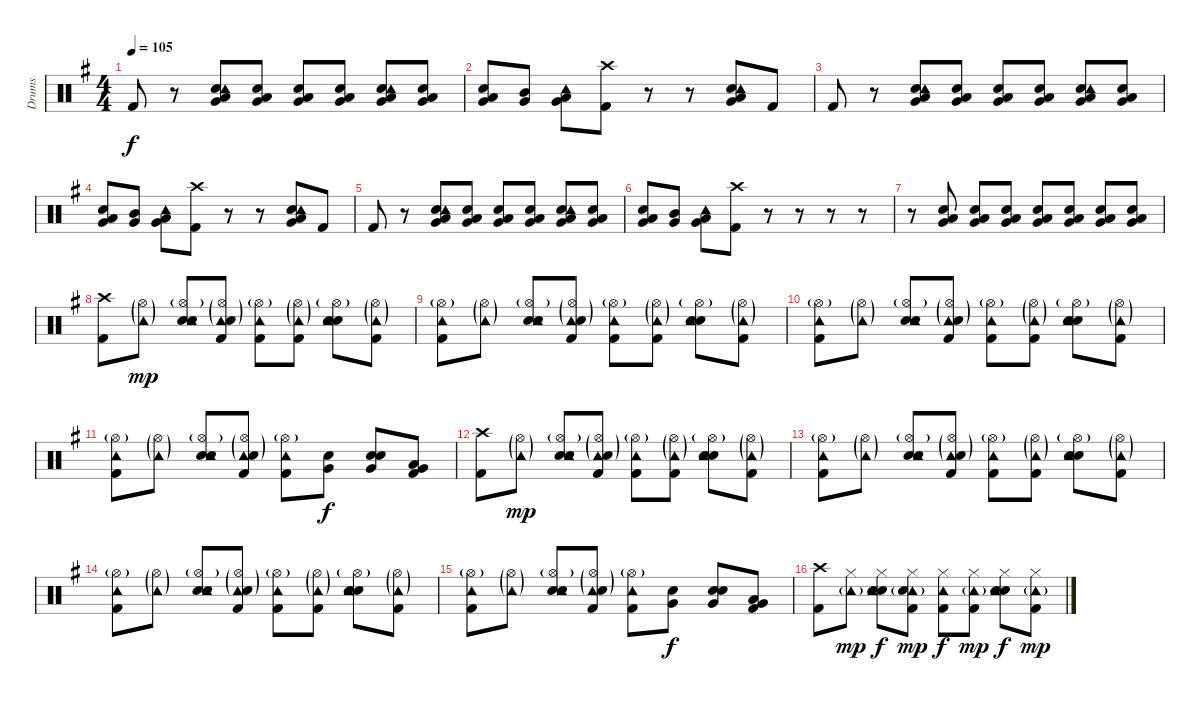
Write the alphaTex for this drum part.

\track ("Drums" "Drums") {instrument percussion}
\staff {score}
\articulation defaults
\ts (4 4)
\tempo 105
\clef neutral
\ks g "Kick (hit) 2".8{dy f}
r.8 ("Snare (hit) 2" "Low Tom (hit)" "Very Low Tom (hit)" "Tambourine (hit)").8 ("Snare (hit) 2" "Low Tom (hit)" "Very Low Tom (hit)").8 ("Snare (hit) 2" "Low Tom (hit)" "Very Low Tom (hit)").8 ("Snare (hit) 2" "Low Tom (hit)" "Very Low Tom (hit)").8 ("Snare (hit) 2" "Low Tom (hit)" "Very Low Tom (hit)" "Tambourine (hit)").8 ("Snare (hit) 2" "Low Tom (hit)" "Very Low Tom (hit)").8 |
("Snare (hit) 2" "Low Tom (hit)" "Very Low Tom (hit)").8 ("Mid Tom (hit)" "Very Low Tom (hit)").8 ("Low Tom (hit)" "Very Low Tom (hit)" "Tambourine (hit)").8 ("Kick (hit) 2" "Crash high (hit)").8 r.8 r.8 ("Snare (hit) 2" "Low Tom (hit)" "Very Low Tom (hit)" "Tambourine (hit)").8 "Kick (hit) 2".8 |
"Kick (hit) 2".8 r.8 ("Snare (hit) 2" "Low Tom (hit)" "Very Low Tom (hit)" "Tambourine (hit)").8 ("Snare (hit) 2" "Low Tom (hit)" "Very Low Tom (hit)").8 ("Snare (hit) 2" "Low Tom (hit)" "Very Low Tom (hit)").8 ("Snare (hit) 2" "Low Tom (hit)" "Very Low Tom (hit)").8 ("Snare (hit) 2" "Low Tom (hit)" "Very Low Tom (hit)" "Tambourine (hit)").8 ("Snare (hit) 2" "Low Tom (hit)" "Very Low Tom (hit)").8 |
("Snare (hit) 2" "Low Tom (hit)" "Very Low Tom (hit)").8 ("Mid Tom (hit)" "Very Low Tom (hit)").8 ("Low Tom (hit)" "Very Low Tom (hit)" "Tambourine (hit)").8 ("Kick (hit) 2" "Crash high (hit)").8 r.8 r.8 ("Snare (hit) 2" "Low Tom (hit)" "Very Low Tom (hit)" "Tambourine (hit)").8 "Kick (hit) 2".8 |
"Kick (hit) 2".8 r.8 ("Snare (hit) 2" "Low Tom (hit)" "Very Low Tom (hit)" "Tambourine (hit)").8 ("Snare (hit) 2" "Low Tom (hit)" "Very Low Tom (hit)").8 ("Snare (hit) 2" "Low Tom (hit)" "Very Low Tom (hit)").8 ("Snare (hit) 2" "Low Tom (hit)" "Very Low Tom (hit)").8 ("Snare (hit) 2" "Low Tom (hit)" "Very Low Tom (hit)" "Tambourine (hit)").8 ("Snare (hit) 2" "Low Tom (hit)" "Very Low Tom (hit)").8 |
("Snare (hit) 2" "Low Tom (hit)" "Very Low Tom (hit)").8 ("Mid Tom (hit)" "Very Low Tom (hit)").8 ("Low Tom (hit)" "Very Low Tom (hit)" "Tambourine (hit)").8 ("Kick (hit) 2" "Crash high (hit)").8 r.8 r.8 r.8 r.8 |
r.8 ("Snare (hit) 2" "Low Tom (hit)" "Very Low Tom (hit)").8 ("Snare (hit) 2" "Low Tom (hit)" "Very Low Tom (hit)").8 ("Snare (hit) 2" "Low Tom (hit)" "Very Low Tom (hit)").8 ("Snare (hit) 2" "Low Tom (hit)" "Very Low Tom (hit)").8 ("Snare (hit) 2" "Low Tom (hit)" "Very Low Tom (hit)").8 ("Snare (hit) 2" "Low Tom (hit)" "Very Low Tom (hit)").8 ("Snare (hit) 2" "Low Tom (hit)" "Very Low Tom (hit)").8 |
("Kick (hit) 2" "Crash high (hit)").8 ("Hi-Hat (open)"{g} "Tambourine (hit)"{g}).8{dy mp} ("Hi-Hat (open)"{g} "Snare (hit) 2" "Tambourine (hit)" "Hand Clap (hit)").8 ("Hi-Hat (open)"{g} "Kick (hit) 2" "Tambourine (hit)"{g} "Hand Clap (hit)").8 ("Hi-Hat (open)"{g} "Kick (hit) 2" "Tambourine (hit)").8 ("Hi-Hat (open)"{g} "Kick (hit) 2" "Tambourine (hit)"{g}).8 ("Hi-Hat (open)"{g} "Snare (hit) 2" "Tambourine (hit)" "Hand Clap (hit)").8 ("Hi-Hat (open)"{g} "Kick (hit) 2" "Tambourine (hit)"{g}).8 |
("Hi-Hat (open)"{g} "Kick (hit) 2" "Tambourine (hit)").8 ("Hi-Hat (open)"{g} "Tambourine (hit)"{g}).8 ("Hi-Hat (open)"{g} "Snare (hit) 2" "Tambourine (hit)" "Hand Clap (hit)").8 ("Hi-Hat (open)"{g} "Kick (hit) 2" "Tambourine (hit)"{g} "Hand Clap (hit)").8 ("Hi-Hat (open)"{g} "Kick (hit) 2" "Tambourine (hit)").8 ("Hi-Hat (open)"{g} "Kick (hit) 2" "Tambourine (hit)"{g}).8 ("Hi-Hat (open)"{g} "Snare (hit) 2" "Tambourine (hit)" "Hand Clap (hit)").8 ("Hi-Hat (open)"{g} "Kick (hit) 2" "Tambourine (hit)"{g}).8 |
("Hi-Hat (open)"{g} "Kick (hit) 2" "Tambourine (hit)").8 ("Hi-Hat (open)"{g} "Tambourine (hit)"{g}).8 ("Hi-Hat (open)"{g} "Snare (hit) 2" "Tambourine (hit)" "Hand Clap (hit)").8 ("Hi-Hat (open)"{g} "Kick (hit) 2" "Tambourine (hit)"{g} "Hand Clap (hit)").8 ("Hi-Hat (open)"{g} "Kick (hit) 2" "Tambourine (hit)").8 ("Hi-Hat (open)"{g} "Kick (hit) 2" "Tambourine (hit)"{g}).8 ("Hi-Hat (open)"{g} "Snare (hit) 2" "Tambourine (hit)" "Hand Clap (hit)").8 ("Hi-Hat (open)"{g} "Kick (hit) 2" "Tambourine (hit)"{g}).8 |
("Hi-Hat (open)"{g} "Kick (hit) 2" "Tambourine (hit)").8 ("Hi-Hat (open)"{g} "Tambourine (hit)"{g}).8 ("Hi-Hat (open)"{g} "Snare (hit) 2" "Tambourine (hit)" "Hand Clap (hit)").8 ("Hi-Hat (open)"{g} "Kick (hit) 2" "Tambourine (hit)"{g} "Hand Clap (hit)").8 ("Hi-Hat (open)"{g} "Kick (hit) 2" "Tambourine (hit)").8 ("Snare (hit) 2" "Very Low Tom (hit)").8{dy f} ("Snare (hit) 2" "Very Low Tom (hit)" "Hand Clap (hit)").8 ("Kick (hit) 2" "Low Tom (hit)" "Very Low Tom (hit)").8 |
("Kick (hit) 2" "Crash high (hit)").8 ("Hi-Hat (open)"{g} "Tambourine (hit)"{g}).8{dy mp} ("Hi-Hat (open)"{g} "Snare (hit) 2" "Tambourine (hit)" "Hand Clap (hit)").8 ("Hi-Hat (open)"{g} "Kick (hit) 2" "Tambourine (hit)"{g} "Hand Clap (hit)").8 ("Hi-Hat (open)"{g} "Kick (hit) 2" "Tambourine (hit)").8 ("Hi-Hat (open)"{g} "Kick (hit) 2" "Tambourine (hit)"{g}).8 ("Hi-Hat (open)"{g} "Snare (hit) 2" "Tambourine (hit)" "Hand Clap (hit)").8 ("Hi-Hat (open)"{g} "Kick (hit) 2" "Tambourine (hit)"{g}).8 |
("Hi-Hat (open)"{g} "Kick (hit) 2" "Tambourine (hit)").8 ("Hi-Hat (open)"{g} "Tambourine (hit)"{g}).8 ("Hi-Hat (open)"{g} "Snare (hit) 2" "Tambourine (hit)" "Hand Clap (hit)").8 ("Hi-Hat (open)"{g} "Kick (hit) 2" "Tambourine (hit)"{g} "Hand Clap (hit)").8 ("Hi-Hat (open)"{g} "Kick (hit) 2" "Tambourine (hit)").8 ("Hi-Hat (open)"{g} "Kick (hit) 2" "Tambourine (hit)"{g}).8 ("Hi-Hat (open)"{g} "Snare (hit) 2" "Tambourine (hit)" "Hand Clap (hit)").8 ("Hi-Hat (open)"{g} "Kick (hit) 2" "Tambourine (hit)"{g}).8 |
("Hi-Hat (open)"{g} "Kick (hit) 2" "Tambourine (hit)").8 ("Hi-Hat (open)"{g} "Tambourine (hit)"{g}).8 ("Hi-Hat (open)"{g} "Snare (hit) 2" "Tambourine (hit)" "Hand Clap (hit)").8 ("Hi-Hat (open)"{g} "Kick (hit) 2" "Tambourine (hit)"{g} "Hand Clap (hit)").8 ("Hi-Hat (open)"{g} "Kick (hit) 2" "Tambourine (hit)").8 ("Hi-Hat (open)"{g} "Kick (hit) 2" "Tambourine (hit)"{g}).8 ("Hi-Hat (open)"{g} "Snare (hit) 2" "Tambourine (hit)" "Hand Clap (hit)").8 ("Hi-Hat (open)"{g} "Kick (hit) 2" "Tambourine (hit)"{g}).8 |
("Hi-Hat (open)"{g} "Kick (hit) 2" "Tambourine (hit)").8 ("Hi-Hat (open)"{g} "Tambourine (hit)"{g}).8 ("Hi-Hat (open)"{g} "Snare (hit) 2" "Tambourine (hit)" "Hand Clap (hit)").8 ("Hi-Hat (open)"{g} "Kick (hit) 2" "Tambourine (hit)"{g} "Hand Clap (hit)").8 ("Hi-Hat (open)"{g} "Kick (hit) 2" "Tambourine (hit)").8 ("Snare (hit) 2" "Very Low Tom (hit)").8{dy f} ("Snare (hit) 2" "Very Low Tom (hit)" "Hand Clap (hit)").8 ("Kick (hit) 2" "Low Tom (hit)" "Very Low Tom (hit)").8 |
("Kick (hit) 2" "Crash high (hit)").8 ("Hi-Hat (closed)" "Tambourine (hit)"{g}).8{dy mp} ("Hi-Hat (closed)" "Snare (hit) 2" "Tambourine (hit)" "Hand Clap (hit)").8{dy f} ("Hi-Hat (closed)" "Kick (hit) 2" "Tambourine (hit)"{g} "Hand Clap (hit)").8{dy mp} ("Hi-Hat (closed)" "Kick (hit) 2" "Tambourine (hit)").8{dy f} ("Hi-Hat (closed)" "Kick (hit) 2" "Tambourine (hit)"{g}).8{dy mp} ("Hi-Hat (closed)" "Snare (hit) 2" "Tambourine (hit)" "Hand Clap (hit)").8{dy f} ("Hi-Hat (closed)" "Kick (hit) 2" "Tambourine (hit)"{g}).8{dy mp}
